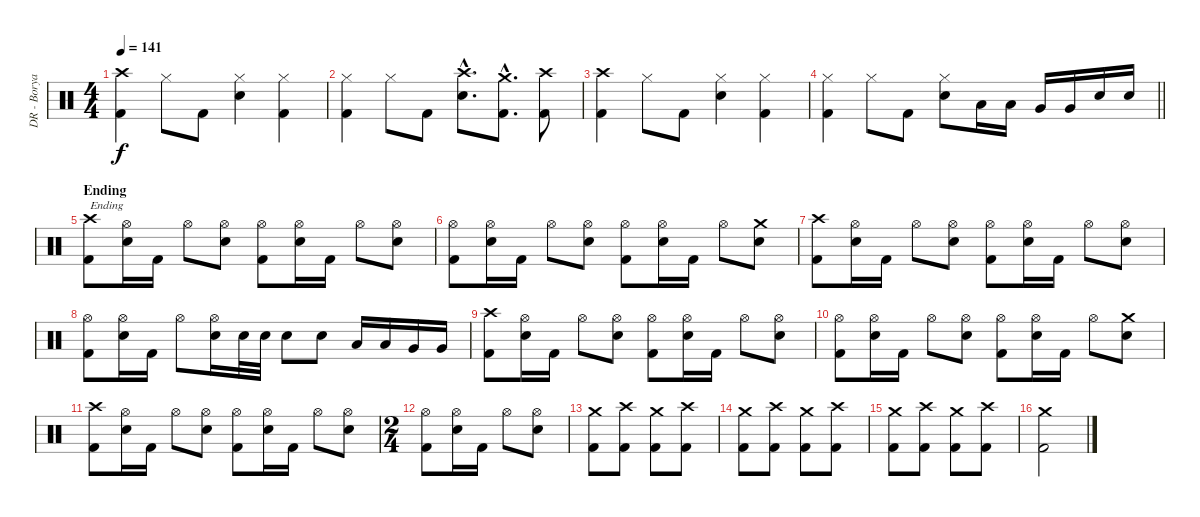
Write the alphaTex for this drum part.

\track ("DR - Borya" "DR - Borya") {instrument percussion}
\staff {score}
\articulation defaults
\ts (4 4)
\tempo 141
\clef neutral
\ks c
("Kick (hit) 2" "Crash high (hit)").4{dy f} "Hi-Hat (closed)".8 "Kick (hit) 2".8 ("Electric Snare (hit)" "Hi-Hat (closed)").4 ("Kick (hit) 2" "Hi-Hat (closed)").4 |
("Kick (hit) 2" "Hi-Hat (closed)").4 "Hi-Hat (closed)".8 "Kick (hit) 2".8 ("Electric Snare (hit)"{hac} "Crash high (hit)"{hac}).8{d} ("Kick (hit) 2"{hac} "Crash medium (hit)"{hac}).8{d} ("Kick (hit) 2" "Crash high (hit)").8 |
("Kick (hit) 2" "Crash high (hit)").4 "Hi-Hat (closed)".8 "Kick (hit) 2".8 ("Electric Snare (hit)" "Hi-Hat (closed)").4 ("Kick (hit) 2" "Hi-Hat (closed)").4 |
\barLineRight lightlight
("Kick (hit) 2" "Hi-Hat (closed)").4 "Hi-Hat (closed)".8 "Kick (hit) 2".8 ("Electric Snare (hit)" "Hi-Hat (closed)").8 "Low Tom (hit)".16 "Low Tom (hit)".16 "Very Low Tom (hit)".16 "Very Low Tom (hit)".16 "Electric Snare (hit)".16 "Electric Snare (hit)".16 |
\section ("" "Ending")
("Kick (hit) 2" "Crash high (hit)").8{txt "Ending"} ("Electric Snare (hit)" "Hi-Hat (open)").16 "Kick (hit) 2".16 "Hi-Hat (open)".8 ("Electric Snare (hit)" "Hi-Hat (open)").8 ("Kick (hit) 2" "Hi-Hat (open)").8 ("Electric Snare (hit)" "Hi-Hat (open)").16 "Kick (hit) 2".16 "Hi-Hat (open)".8 ("Electric Snare (hit)" "Hi-Hat (open)").8 |
("Kick (hit) 2" "Hi-Hat (open)").8 ("Electric Snare (hit)" "Hi-Hat (open)").16 "Kick (hit) 2".16 "Hi-Hat (open)".8 ("Electric Snare (hit)" "Hi-Hat (open)").8 ("Kick (hit) 2" "Hi-Hat (open)").8 ("Electric Snare (hit)" "Hi-Hat (open)").16 "Kick (hit) 2".16 "Hi-Hat (open)".8 ("Electric Snare (hit)" "Crash medium (hit)").8 |
("Kick (hit) 2" "Crash high (hit)").8 ("Electric Snare (hit)" "Hi-Hat (open)").16 "Kick (hit) 2".16 "Hi-Hat (open)".8 ("Electric Snare (hit)" "Hi-Hat (open)").8 ("Kick (hit) 2" "Hi-Hat (open)").8 ("Electric Snare (hit)" "Hi-Hat (open)").16 "Kick (hit) 2".16 "Hi-Hat (open)".8 ("Electric Snare (hit)" "Hi-Hat (open)").8 |
("Kick (hit) 2" "Hi-Hat (open)").8 ("Electric Snare (hit)" "Hi-Hat (open)").16 "Kick (hit) 2".16 "Hi-Hat (open)".8 ("Electric Snare (hit)" "Hi-Hat (open)").16 "Electric Snare (hit)".32 "Electric Snare (hit)".32 "Electric Snare (hit)".8 "Electric Snare (hit)".8 "Low Tom (hit)".16 "Low Tom (hit)".16 "Very Low Tom (hit)".16 "Very Low Tom (hit)".16 |
("Kick (hit) 2" "Crash high (hit)").8 ("Electric Snare (hit)" "Hi-Hat (open)").16 "Kick (hit) 2".16 "Hi-Hat (open)".8 ("Electric Snare (hit)" "Hi-Hat (open)").8 ("Kick (hit) 2" "Hi-Hat (open)").8 ("Electric Snare (hit)" "Hi-Hat (open)").16 "Kick (hit) 2".16 "Hi-Hat (open)".8 ("Electric Snare (hit)" "Hi-Hat (open)").8 |
("Kick (hit) 2" "Hi-Hat (open)").8 ("Electric Snare (hit)" "Hi-Hat (open)").16 "Kick (hit) 2".16 "Hi-Hat (open)".8 ("Electric Snare (hit)" "Hi-Hat (open)").8 ("Kick (hit) 2" "Hi-Hat (open)").8 ("Electric Snare (hit)" "Hi-Hat (open)").16 "Kick (hit) 2".16 "Hi-Hat (open)".8 ("Electric Snare (hit)" "Crash medium (hit)").8 |
("Kick (hit) 2" "Crash high (hit)").8 ("Electric Snare (hit)" "Hi-Hat (open)").16 "Kick (hit) 2".16 "Hi-Hat (open)".8 ("Electric Snare (hit)" "Hi-Hat (open)").8 ("Kick (hit) 2" "Hi-Hat (open)").8 ("Electric Snare (hit)" "Hi-Hat (open)").16 "Kick (hit) 2".16 "Hi-Hat (open)".8 ("Electric Snare (hit)" "Hi-Hat (open)").8 |
\ts (2 4)
("Kick (hit) 2" "Hi-Hat (open)").8 ("Electric Snare (hit)" "Hi-Hat (open)").16 "Kick (hit) 2".16 "Hi-Hat (open)".8 ("Electric Snare (hit)" "Hi-Hat (open)").8 |
("Kick (hit) 2" "Crash medium (hit)").8 ("Kick (hit) 2" "Crash high (hit)").8 ("Kick (hit) 2" "Crash medium (hit)").8 ("Kick (hit) 2" "Crash high (hit)").8 |
("Kick (hit) 2" "Crash medium (hit)").8 ("Kick (hit) 2" "Crash high (hit)").8 ("Kick (hit) 2" "Crash medium (hit)").8 ("Kick (hit) 2" "Crash high (hit)").8 |
("Kick (hit) 2" "Crash medium (hit)").8 ("Kick (hit) 2" "Crash high (hit)").8 ("Kick (hit) 2" "Crash medium (hit)").8 ("Kick (hit) 2" "Crash high (hit)").8 |
("Kick (hit) 2" "Crash medium (hit)").2
